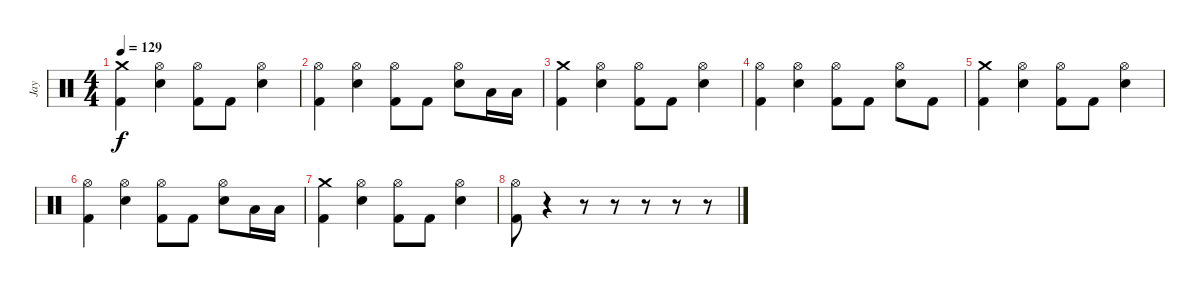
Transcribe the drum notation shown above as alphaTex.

\track ("Jay" "Jay") {instrument percussion}
\staff {score}
\articulation defaults
\ts (4 4)
\tempo 129
\clef neutral
\ks c
("Crash medium (hit)" "Kick (hit) 2").4{dy f} ("Hi-Hat (open)" "Electric Snare (hit)").4 ("Hi-Hat (open)" "Kick (hit) 2").8 "Kick (hit) 2".8 ("Hi-Hat (open)" "Electric Snare (hit)").4 |
("Hi-Hat (open)" "Kick (hit) 2").4 ("Hi-Hat (open)" "Electric Snare (hit)").4 ("Hi-Hat (open)" "Kick (hit) 2").8 "Kick (hit) 2".8 ("Hi-Hat (open)" "Electric Snare (hit)").8 "Low Tom (hit)".16 "Low Tom (hit)".16 |
("Crash medium (hit)" "Kick (hit) 2").4 ("Hi-Hat (open)" "Electric Snare (hit)").4 ("Hi-Hat (open)" "Kick (hit) 2").8 "Kick (hit) 2".8 ("Hi-Hat (open)" "Electric Snare (hit)").4 |
("Hi-Hat (open)" "Kick (hit) 2").4 ("Hi-Hat (open)" "Electric Snare (hit)").4 ("Hi-Hat (open)" "Kick (hit) 2").8 "Kick (hit) 2".8 ("Hi-Hat (open)" "Electric Snare (hit)").8 "Kick (hit) 2".8 |
("Crash medium (hit)" "Kick (hit) 2").4 ("Hi-Hat (open)" "Electric Snare (hit)").4 ("Hi-Hat (open)" "Kick (hit) 2").8 "Kick (hit) 2".8 ("Hi-Hat (open)" "Electric Snare (hit)").4 |
("Hi-Hat (open)" "Kick (hit) 2").4 ("Hi-Hat (open)" "Electric Snare (hit)").4 ("Hi-Hat (open)" "Kick (hit) 2").8 "Kick (hit) 2".8 ("Hi-Hat (open)" "Electric Snare (hit)").8 "Low Tom (hit)".16 "Low Tom (hit)".16 |
("Crash medium (hit)" "Kick (hit) 2").4 ("Hi-Hat (open)" "Electric Snare (hit)").4 ("Hi-Hat (open)" "Kick (hit) 2").8 "Kick (hit) 2".8 ("Hi-Hat (open)" "Electric Snare (hit)").4 |
("Hi-Hat (open)" "Kick (hit) 2").8 r.4 r.8 r.8 r.8 r.8 r.8
